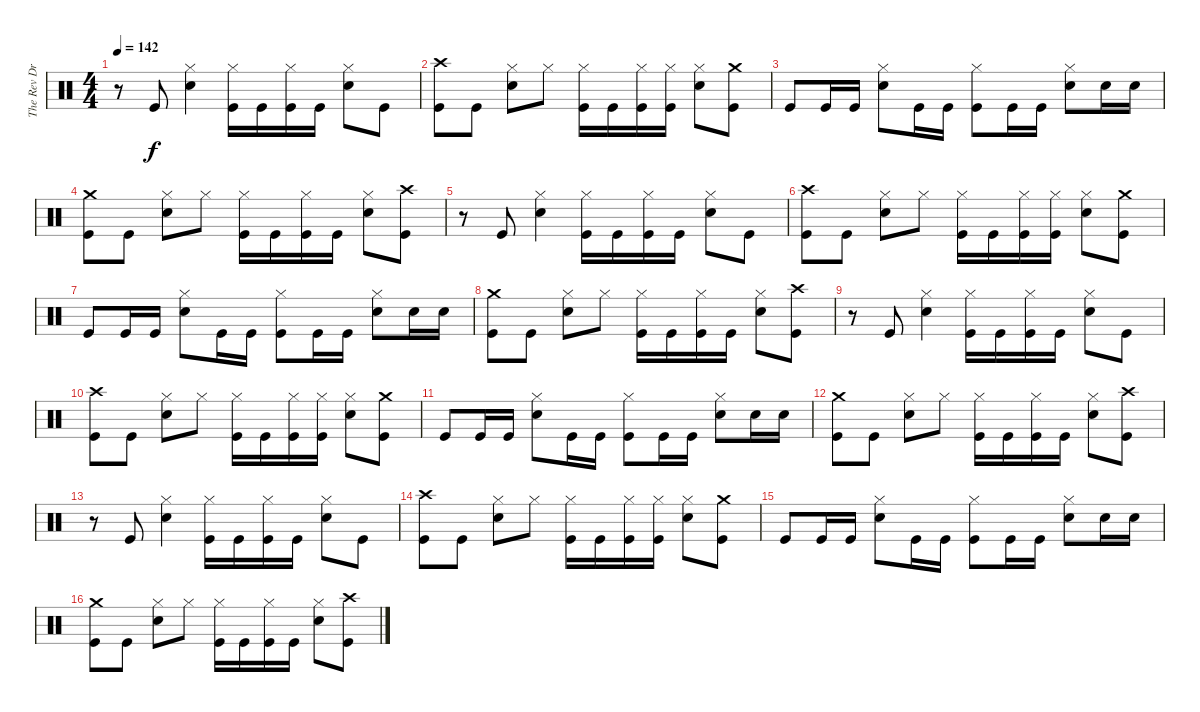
\track ("The Rev Drums" "The Rev Dr") {instrument percussion}
\staff {score}
\articulation defaults
\ts (4 4)
\tempo 142
\clef neutral
\ks c
r.8{dy f} "Kick (hit)".8 ("Hi-Hat (closed)" "Electric Snare (hit)").4 ("Hi-Hat (closed)" "Kick (hit)").16 "Kick (hit)".16 ("Hi-Hat (closed)" "Kick (hit)").16 "Kick (hit)".16 ("Hi-Hat (closed)" "Electric Snare (hit)").8 "Kick (hit)".8 |
("Crash high (hit)" "Kick (hit)").8 "Kick (hit)".8 ("Hi-Hat (closed)" "Electric Snare (hit)").8 "Hi-Hat (closed)".8 ("Hi-Hat (closed)" "Kick (hit)").16 "Kick (hit)".16 ("Hi-Hat (closed)" "Kick (hit)").16 ("Hi-Hat (closed)" "Kick (hit)").16 ("Hi-Hat (closed)" "Electric Snare (hit)").8 ("Crash medium (hit)" "Kick (hit)").8 |
"Kick (hit)".8 "Kick (hit)".16 "Kick (hit)".16 ("Hi-Hat (closed)" "Electric Snare (hit)").8 "Kick (hit)".16 "Kick (hit)".16 ("Hi-Hat (closed)" "Kick (hit)").8 "Kick (hit)".16 "Kick (hit)".16 ("Hi-Hat (closed)" "Electric Snare (hit)").8 "Electric Snare (hit)".16 "Electric Snare (hit)".16 |
("Crash medium (hit)" "Kick (hit)").8 "Kick (hit)".8 ("Hi-Hat (closed)" "Electric Snare (hit)").8 "Hi-Hat (closed)".8 ("Hi-Hat (closed)" "Kick (hit)").16 "Kick (hit)".16 ("Hi-Hat (closed)" "Kick (hit)").16 "Kick (hit)".16 ("Hi-Hat (closed)" "Electric Snare (hit)").8 ("Crash high (hit)" "Kick (hit)").8 |
r.8 "Kick (hit)".8 ("Hi-Hat (closed)" "Electric Snare (hit)").4 ("Hi-Hat (closed)" "Kick (hit)").16 "Kick (hit)".16 ("Hi-Hat (closed)" "Kick (hit)").16 "Kick (hit)".16 ("Hi-Hat (closed)" "Electric Snare (hit)").8 "Kick (hit)".8 |
("Crash high (hit)" "Kick (hit)").8 "Kick (hit)".8 ("Hi-Hat (closed)" "Electric Snare (hit)").8 "Hi-Hat (closed)".8 ("Hi-Hat (closed)" "Kick (hit)").16 "Kick (hit)".16 ("Hi-Hat (closed)" "Kick (hit)").16 ("Hi-Hat (closed)" "Kick (hit)").16 ("Hi-Hat (closed)" "Electric Snare (hit)").8 ("Crash medium (hit)" "Kick (hit)").8 |
"Kick (hit)".8 "Kick (hit)".16 "Kick (hit)".16 ("Hi-Hat (closed)" "Electric Snare (hit)").8 "Kick (hit)".16 "Kick (hit)".16 ("Hi-Hat (closed)" "Kick (hit)").8 "Kick (hit)".16 "Kick (hit)".16 ("Hi-Hat (closed)" "Electric Snare (hit)").8 "Electric Snare (hit)".16 "Electric Snare (hit)".16 |
("Crash medium (hit)" "Kick (hit)").8 "Kick (hit)".8 ("Hi-Hat (closed)" "Electric Snare (hit)").8 "Hi-Hat (closed)".8 ("Hi-Hat (closed)" "Kick (hit)").16 "Kick (hit)".16 ("Hi-Hat (closed)" "Kick (hit)").16 "Kick (hit)".16 ("Hi-Hat (closed)" "Electric Snare (hit)").8 ("Crash high (hit)" "Kick (hit)").8 |
r.8 "Kick (hit)".8 ("Hi-Hat (closed)" "Electric Snare (hit)").4 ("Hi-Hat (closed)" "Kick (hit)").16 "Kick (hit)".16 ("Hi-Hat (closed)" "Kick (hit)").16 "Kick (hit)".16 ("Hi-Hat (closed)" "Electric Snare (hit)").8 "Kick (hit)".8 |
("Crash high (hit)" "Kick (hit)").8 "Kick (hit)".8 ("Hi-Hat (closed)" "Electric Snare (hit)").8 "Hi-Hat (closed)".8 ("Hi-Hat (closed)" "Kick (hit)").16 "Kick (hit)".16 ("Hi-Hat (closed)" "Kick (hit)").16 ("Hi-Hat (closed)" "Kick (hit)").16 ("Hi-Hat (closed)" "Electric Snare (hit)").8 ("Crash medium (hit)" "Kick (hit)").8 |
"Kick (hit)".8 "Kick (hit)".16 "Kick (hit)".16 ("Hi-Hat (closed)" "Electric Snare (hit)").8 "Kick (hit)".16 "Kick (hit)".16 ("Hi-Hat (closed)" "Kick (hit)").8 "Kick (hit)".16 "Kick (hit)".16 ("Hi-Hat (closed)" "Electric Snare (hit)").8 "Electric Snare (hit)".16 "Electric Snare (hit)".16 |
("Crash medium (hit)" "Kick (hit)").8 "Kick (hit)".8 ("Hi-Hat (closed)" "Electric Snare (hit)").8 "Hi-Hat (closed)".8 ("Hi-Hat (closed)" "Kick (hit)").16 "Kick (hit)".16 ("Hi-Hat (closed)" "Kick (hit)").16 "Kick (hit)".16 ("Hi-Hat (closed)" "Electric Snare (hit)").8 ("Crash high (hit)" "Kick (hit)").8 |
r.8 "Kick (hit)".8 ("Hi-Hat (closed)" "Electric Snare (hit)").4 ("Hi-Hat (closed)" "Kick (hit)").16 "Kick (hit)".16 ("Hi-Hat (closed)" "Kick (hit)").16 "Kick (hit)".16 ("Hi-Hat (closed)" "Electric Snare (hit)").8 "Kick (hit)".8 |
("Crash high (hit)" "Kick (hit)").8 "Kick (hit)".8 ("Hi-Hat (closed)" "Electric Snare (hit)").8 "Hi-Hat (closed)".8 ("Hi-Hat (closed)" "Kick (hit)").16 "Kick (hit)".16 ("Hi-Hat (closed)" "Kick (hit)").16 ("Hi-Hat (closed)" "Kick (hit)").16 ("Hi-Hat (closed)" "Electric Snare (hit)").8 ("Crash medium (hit)" "Kick (hit)").8 |
"Kick (hit)".8 "Kick (hit)".16 "Kick (hit)".16 ("Hi-Hat (closed)" "Electric Snare (hit)").8 "Kick (hit)".16 "Kick (hit)".16 ("Hi-Hat (closed)" "Kick (hit)").8 "Kick (hit)".16 "Kick (hit)".16 ("Hi-Hat (closed)" "Electric Snare (hit)").8 "Electric Snare (hit)".16 "Electric Snare (hit)".16 |
("Crash medium (hit)" "Kick (hit)").8 "Kick (hit)".8 ("Hi-Hat (closed)" "Electric Snare (hit)").8 "Hi-Hat (closed)".8 ("Hi-Hat (closed)" "Kick (hit)").16 "Kick (hit)".16 ("Hi-Hat (closed)" "Kick (hit)").16 "Kick (hit)".16 ("Hi-Hat (closed)" "Electric Snare (hit)").8 ("Crash high (hit)" "Kick (hit)").8
